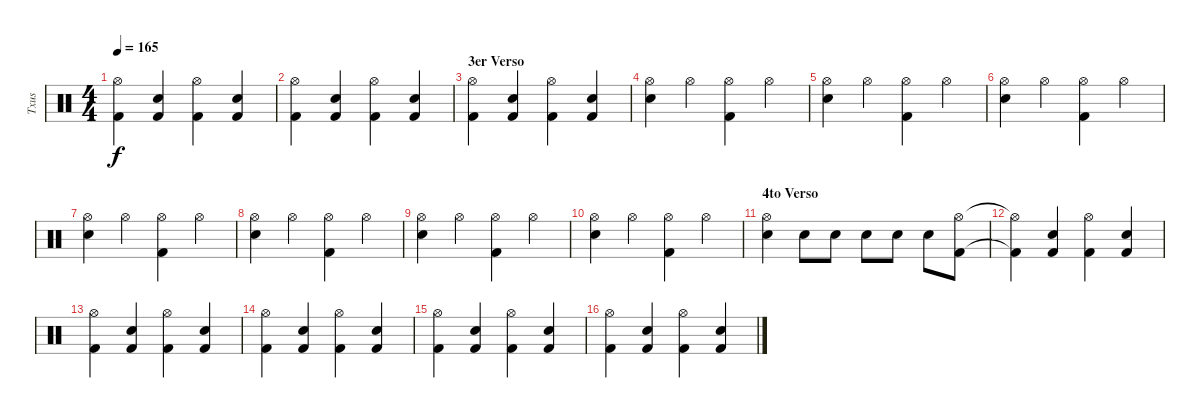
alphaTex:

\track ("Txus" "Txus") {instrument percussion}
\staff {score}
\articulation defaults
\ts (4 4)
\tempo 165
\clef neutral
\ks c
("Hi-Hat (open)" "Kick (hit) 2").4{dy f} ("Snare (hit) 2" "Kick (hit) 2").4 ("Hi-Hat (open)" "Kick (hit) 2").4 ("Snare (hit) 2" "Kick (hit) 2").4 |
("Hi-Hat (open)" "Kick (hit) 2").4 ("Snare (hit) 2" "Kick (hit) 2").4 ("Hi-Hat (open)" "Kick (hit) 2").4 ("Snare (hit) 2" "Kick (hit) 2").4 |
\section ("" "3er Verso")
("Hi-Hat (open)" "Kick (hit) 2").4 ("Snare (hit) 2" "Kick (hit) 2").4 ("Hi-Hat (open)" "Kick (hit) 2").4 ("Snare (hit) 2" "Kick (hit) 2").4 |
("Snare (hit) 2" "Hi-Hat (open)").4 "Hi-Hat (open)".4 ("Hi-Hat (open)" "Kick (hit) 2").4 "Hi-Hat (open)".4 |
("Snare (hit) 2" "Hi-Hat (open)").4 "Hi-Hat (open)".4 ("Hi-Hat (open)" "Kick (hit) 2").4 "Hi-Hat (open)".4 |
("Snare (hit) 2" "Hi-Hat (open)").4 "Hi-Hat (open)".4 ("Hi-Hat (open)" "Kick (hit) 2").4 "Hi-Hat (open)".4 |
("Snare (hit) 2" "Hi-Hat (open)").4 "Hi-Hat (open)".4 ("Hi-Hat (open)" "Kick (hit) 2").4 "Hi-Hat (open)".4 |
("Snare (hit) 2" "Hi-Hat (open)").4 "Hi-Hat (open)".4 ("Hi-Hat (open)" "Kick (hit) 2").4 "Hi-Hat (open)".4 |
("Snare (hit) 2" "Hi-Hat (open)").4 "Hi-Hat (open)".4 ("Hi-Hat (open)" "Kick (hit) 2").4 "Hi-Hat (open)".4 |
("Snare (hit) 2" "Hi-Hat (open)").4 "Hi-Hat (open)".4 ("Hi-Hat (open)" "Kick (hit) 2").4 "Hi-Hat (open)".4 |
\section ("" "4to Verso")
("Snare (hit) 2" "Hi-Hat (open)").4 "Snare (hit) 2".8 "Snare (hit) 2".8 "Snare (hit) 2".8 "Snare (hit) 2".8 "Snare (hit) 2".8 ("Hi-Hat (open)" "Kick (hit) 2").8 |
("Hi-Hat (open)"{t} "Kick (hit) 2"{t}).4 ("Snare (hit) 2" "Kick (hit) 2").4 ("Hi-Hat (open)" "Kick (hit) 2").4 ("Snare (hit) 2" "Kick (hit) 2").4 |
("Hi-Hat (open)" "Kick (hit) 2").4 ("Snare (hit) 2" "Kick (hit) 2").4 ("Hi-Hat (open)" "Kick (hit) 2").4 ("Snare (hit) 2" "Kick (hit) 2").4 |
("Hi-Hat (open)" "Kick (hit) 2").4 ("Snare (hit) 2" "Kick (hit) 2").4 ("Hi-Hat (open)" "Kick (hit) 2").4 ("Snare (hit) 2" "Kick (hit) 2").4 |
("Hi-Hat (open)" "Kick (hit) 2").4 ("Snare (hit) 2" "Kick (hit) 2").4 ("Hi-Hat (open)" "Kick (hit) 2").4 ("Snare (hit) 2" "Kick (hit) 2").4 |
("Hi-Hat (open)" "Kick (hit) 2").4 ("Snare (hit) 2" "Kick (hit) 2").4 ("Hi-Hat (open)" "Kick (hit) 2").4 ("Snare (hit) 2" "Kick (hit) 2").4
